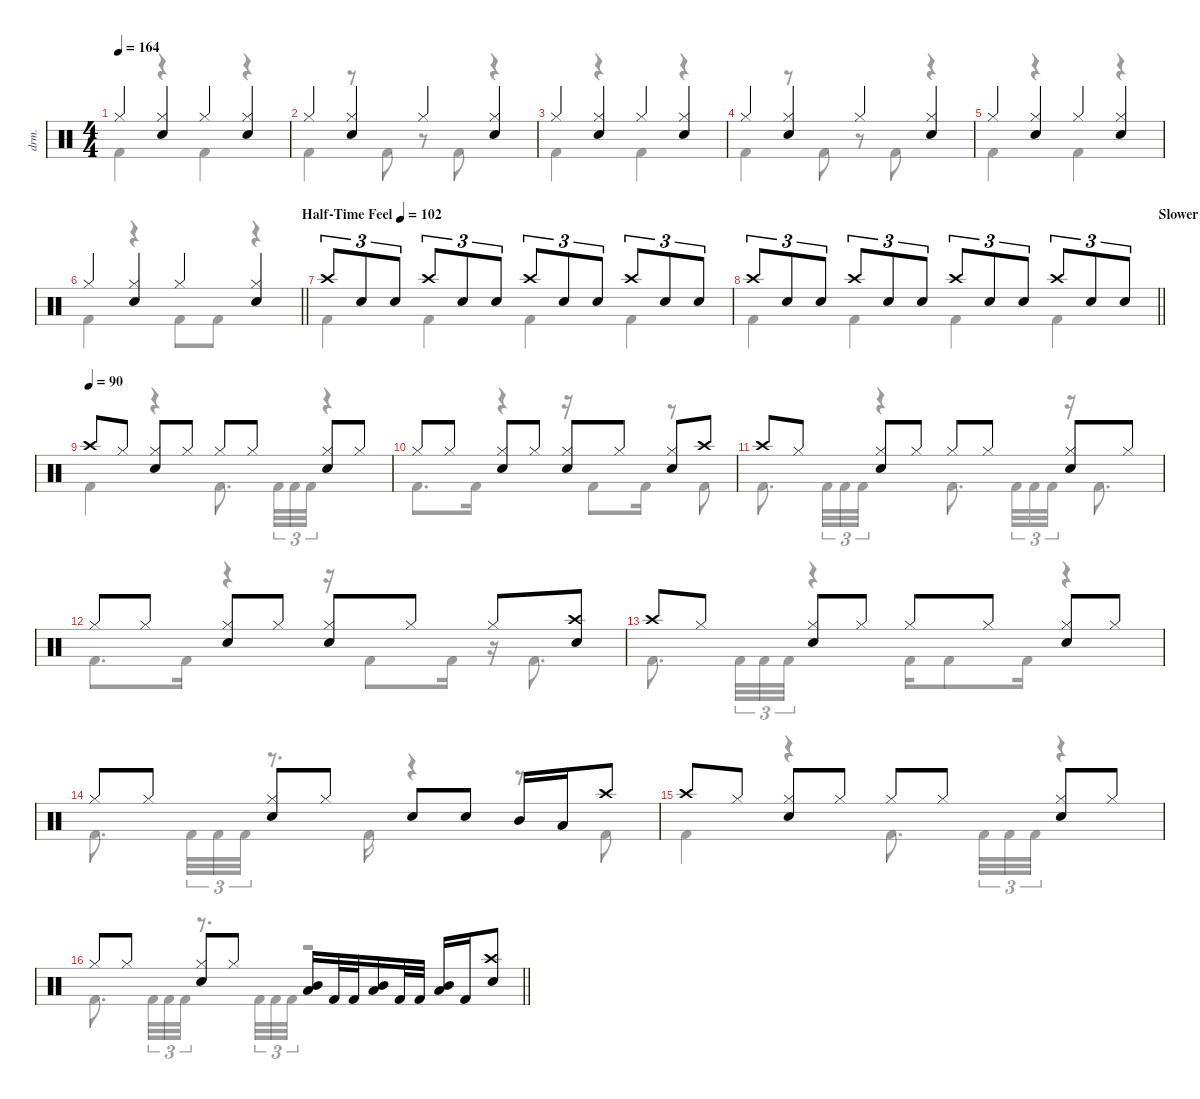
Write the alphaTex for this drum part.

\defaultSystemsLayout 4
\hideDynamics
\bracketExtendMode nobrackets
\otherSystemsTrackNameOrientation horizontal
\track ("Lars Ulrich" "drm.") {defaultSystemsLayout 8 instrument percussion}
\staff {score}
\articulation defaults
\voice
\ts (4 4)
\tempo 164
\clef neutral
\ks aminor "Hi-Hat (closed)".4{dy f beam Up}
("Hi-Hat (closed)" "Snare (hit) 2").4{beam Up} "Hi-Hat (closed)".4{beam Up} ("Hi-Hat (closed)" "Snare (hit) 2").4{beam Up} |
"Hi-Hat (closed)".4{beam Up} ("Hi-Hat (closed)" "Snare (hit) 2").4{beam Up} "Hi-Hat (closed)".4{beam Up} ("Hi-Hat (closed)" "Snare (hit) 2").4{beam Up} |
"Hi-Hat (closed)".4{beam Up} ("Hi-Hat (closed)" "Snare (hit) 2").4{beam Up} "Hi-Hat (closed)".4{beam Up} ("Hi-Hat (closed)" "Snare (hit) 2").4{beam Up} |
"Hi-Hat (closed)".4{beam Up} ("Hi-Hat (closed)" "Snare (hit) 2").4{beam Up} "Hi-Hat (closed)".4{beam Up} ("Hi-Hat (closed)" "Snare (hit) 2").4{beam Up} |
"Hi-Hat (closed)".4{beam Up} ("Hi-Hat (closed)" "Snare (hit) 2").4{beam Up} "Hi-Hat (closed)".4{beam Up} ("Hi-Hat (closed)" "Snare (hit) 2").4{beam Up} |
\tempo (102 "Half-Time Feel" 1)
\barLineRight lightlight "Hi-Hat (closed)".4{beam Up}
("Hi-Hat (closed)" "Snare (hit) 2").4{beam Up} "Hi-Hat (closed)".4{beam Up} ("Hi-Hat (closed)" "Snare (hit) 2").4{beam Up} |
"Crash high (hit)".8{tu (3 2) beam Up} "Snare (hit) 2".8{tu (3 2) beam Up} "Snare (hit) 2".8{tu (3 2) beam Up} "Crash high (hit)".8{tu (3 2) beam Up} "Snare (hit) 2".8{tu (3 2) beam Up} "Snare (hit) 2".8{tu (3 2) beam Up} "Crash high (hit)".8{tu (3 2) beam Up} "Snare (hit) 2".8{tu (3 2) beam Up} "Snare (hit) 2".8{tu (3 2) beam Up} "Crash high (hit)".8{tu (3 2) beam Up} "Snare (hit) 2".8{tu (3 2) beam Up} "Snare (hit) 2".8{tu (3 2) beam Up} |
\tempo (90 "Slower" 1)
\barLineRight lightlight "Crash high (hit)".8{tu (3 2) beam Up} "Snare (hit) 2".8{tu (3 2) beam Up} "Snare (hit) 2".8{tu (3 2) beam Up} "Crash high (hit)".8{tu (3 2) beam Up} "Snare (hit) 2".8{tu (3 2) beam Up} "Snare (hit) 2".8{tu (3 2) beam Up} "Crash high (hit)".8{tu (3 2) beam Up} "Snare (hit) 2".8{tu (3 2) beam Up} "Snare (hit) 2".8{tu (3 2) beam Up} "Crash high (hit)".8{tu (3 2) beam Up} "Snare (hit) 2".8{tu (3 2) beam Up} "Snare (hit) 2".8{tu (3 2) beam Up}
|
\tempo (90)
"Crash high (hit)".8{beam Up} "Hi-Hat (closed)".8{beam Up} ("Hi-Hat (closed)" "Snare (hit) 2").8{beam Up} "Hi-Hat (closed)".8{beam Up} "Hi-Hat (closed)".8{beam Up} "Hi-Hat (closed)".8{beam Up} ("Hi-Hat (closed)" "Snare (hit) 2").8{beam Up} "Hi-Hat (closed)".8{beam Up} |
"Hi-Hat (closed)".8{beam Up} "Hi-Hat (closed)".8{beam Up} ("Hi-Hat (closed)" "Snare (hit) 2").8{beam Up} "Hi-Hat (closed)".8{beam Up} ("Hi-Hat (closed)" "Snare (hit) 2").8{beam Up} "Hi-Hat (closed)".8{beam Up} ("Hi-Hat (closed)" "Snare (hit) 2").8{beam Up} "Crash high (hit)".8{beam Up} |
"Crash high (hit)".8{beam Up} "Hi-Hat (closed)".8{beam Up} ("Hi-Hat (closed)" "Snare (hit) 2").8{beam Up} "Hi-Hat (closed)".8{beam Up} "Hi-Hat (closed)".8{beam Up} "Hi-Hat (closed)".8{beam Up} ("Hi-Hat (closed)" "Snare (hit) 2").8{beam Up} "Hi-Hat (closed)".8{beam Up} |
"Hi-Hat (closed)".8{beam Up} "Hi-Hat (closed)".8{beam Up} ("Hi-Hat (closed)" "Snare (hit) 2").8{beam Up} "Hi-Hat (closed)".8{beam Up} ("Hi-Hat (closed)" "Snare (hit) 2").8{beam Up} "Hi-Hat (closed)".8{beam Up} "Hi-Hat (closed)".8{beam Up} ("Crash high (hit)" "Snare (hit) 2").8{beam Up} |
"Crash high (hit)".8{beam Up} "Hi-Hat (closed)".8{beam Up} ("Hi-Hat (closed)" "Snare (hit) 2").8{beam Up} "Hi-Hat (closed)".8{beam Up} "Hi-Hat (closed)".8{beam Up} "Hi-Hat (closed)".8{beam Up} ("Hi-Hat (closed)" "Snare (hit) 2").8{beam Up} "Hi-Hat (closed)".8{beam Up} |
"Hi-Hat (closed)".8{beam Up} "Hi-Hat (closed)".8{beam Up} ("Hi-Hat (closed)" "Snare (hit) 2").8{beam Up} "Hi-Hat (closed)".8{beam Up} "Snare (hit) 2".8{beam Up} "Snare (hit) 2".8{beam Up} "Mid Tom (hit)".16{beam Up} "Low Tom (hit)".16{beam Up} "Crash high (hit)".8{beam Up} |
"Crash high (hit)".8{beam Up} "Hi-Hat (closed)".8{beam Up} ("Hi-Hat (closed)" "Snare (hit) 2").8{beam Up} "Hi-Hat (closed)".8{beam Up} "Hi-Hat (closed)".8{beam Up} "Hi-Hat (closed)".8{beam Up} ("Hi-Hat (closed)" "Snare (hit) 2").8{beam Up} "Hi-Hat (closed)".8{beam Up} |
\barLineRight lightlight "Hi-Hat (closed)".8{beam Up} "Hi-Hat (closed)".8{beam Up}
("Hi-Hat (closed)" "Snare (hit) 2").8{beam Up} "Hi-Hat (closed)".8{beam Up} ("Mid Tom (hit)" "Low Tom (hit)").16{beam Up} "Kick (hit) 2".32{beam Up} "Kick (hit) 2".32{beam Up} ("Mid Tom (hit)" "Low Tom (hit)").16{beam Up} "Kick (hit) 2".32{beam Up} "Kick (hit) 2".32{beam Up} ("Mid Tom (hit)" "Low Tom (hit)").16{beam Up} "Kick (hit) 2".16{beam Up} ("Crash high (hit)" "Snare (hit) 2").8{beam Up}
\voice
\clef neutral
\ottava regular
\simile none
\ks aminor "Kick (hit) 2".4{dy f beam Down}
r.4{beam Down} "Kick (hit) 2".4{beam Down} r.4{beam Down} |
"Kick (hit) 2".4{beam Down} r.8{beam Down} "Kick (hit) 2".8{beam Down} r.8{beam Down} "Kick (hit) 2".8{beam Down} r.4{beam Down} |
"Kick (hit) 2".4{beam Down} r.4{beam Down} "Kick (hit) 2".4{beam Down} r.4{beam Down} |
"Kick (hit) 2".4{beam Down} r.8{beam Down} "Kick (hit) 2".8{beam Down} r.8{beam Down} "Kick (hit) 2".8{beam Down} r.4{beam Down} |
"Kick (hit) 2".4{beam Down} r.4{beam Down} "Kick (hit) 2".4{beam Down} r.4{beam Down} |
\barLineRight lightlight "Kick (hit) 2".4{beam Down}
r.4{beam Down} "Kick (hit) 2".8{beam Down} "Kick (hit) 2".8{beam Down} r.4{beam Down} |
"Kick (hit) 2".4{beam Down} "Kick (hit) 2".4{beam Down} "Kick (hit) 2".4{beam Down} "Kick (hit) 2".4{beam Down} |
\barLineRight lightlight "Kick (hit) 2".4{beam Down} "Kick (hit) 2".4{beam Down} "Kick (hit) 2".4{beam Down} "Kick (hit) 2".4{beam Down}
|
"Kick (hit) 2".4{beam Down} r.4{beam Down} "Kick (hit) 2".8{d beam Down} "Kick (hit) 2".32{tu (3 2) beam Down} "Kick (hit) 2".32{tu (3 2) beam Down} "Kick (hit) 2".32{tu (3 2) beam Down} r.4{beam Down} |
"Kick (hit) 2".8{d beam Down} "Kick (hit) 2".16{beam Down} r.4{beam Down} r.16{beam Down} "Kick (hit) 2".8{beam Down} "Kick (hit) 2".16{beam Down} r.8{beam Down} "Kick (hit) 2".8{beam Down} |
"Kick (hit) 2".8{d beam Down} "Kick (hit) 2".32{tu (3 2) beam Down} "Kick (hit) 2".32{tu (3 2) beam Down} "Kick (hit) 2".32{tu (3 2) beam Down} r.4{beam Down} "Kick (hit) 2".8{d beam Down} "Kick (hit) 2".32{tu (3 2) beam Down} "Kick (hit) 2".32{tu (3 2) beam Down} "Kick (hit) 2".32{tu (3 2) beam Down} r.16{beam Down} "Kick (hit) 2".8{d beam Down} |
"Kick (hit) 2".8{d beam Down} "Kick (hit) 2".16{beam Down} r.4{beam Down} r.16{beam Down} "Kick (hit) 2".8{beam Down} "Kick (hit) 2".16{beam Down} r.16{beam Down} "Kick (hit) 2".8{d beam Down} |
"Kick (hit) 2".8{d beam Down} "Kick (hit) 2".32{tu (3 2) beam Down} "Kick (hit) 2".32{tu (3 2) beam Down} "Kick (hit) 2".32{tu (3 2) beam Down} r.4{beam Down} "Kick (hit) 2".16{beam Down} "Kick (hit) 2".8{beam Down} "Kick (hit) 2".16{beam Down} r.4{beam Down} |
"Kick (hit) 2".8{d beam Down} "Kick (hit) 2".32{tu (3 2) beam Down} "Kick (hit) 2".32{tu (3 2) beam Down} "Kick (hit) 2".32{tu (3 2) beam Down} r.8{d beam Down} "Kick (hit) 2".16{beam Down} r.4{beam Down} r.8{beam Down} "Kick (hit) 2".8{beam Down} |
"Kick (hit) 2".4{beam Down} r.4{beam Down} "Kick (hit) 2".8{d beam Down} "Kick (hit) 2".32{tu (3 2) beam Down} "Kick (hit) 2".32{tu (3 2) beam Down} "Kick (hit) 2".32{tu (3 2) beam Down} r.4{beam Down} |
\barLineRight lightlight "Kick (hit) 2".8{d beam Down} "Kick (hit) 2".32{tu (3 2) beam Down} "Kick (hit) 2".32{tu (3 2) beam Down} "Kick (hit) 2".32{tu (3 2) beam Down}
r.8{d beam Down} "Kick (hit) 2".32{tu (3 2) beam Down} "Kick (hit) 2".32{tu (3 2) beam Down} "Kick (hit) 2".32{tu (3 2) beam Down} r.2{beam Down}
